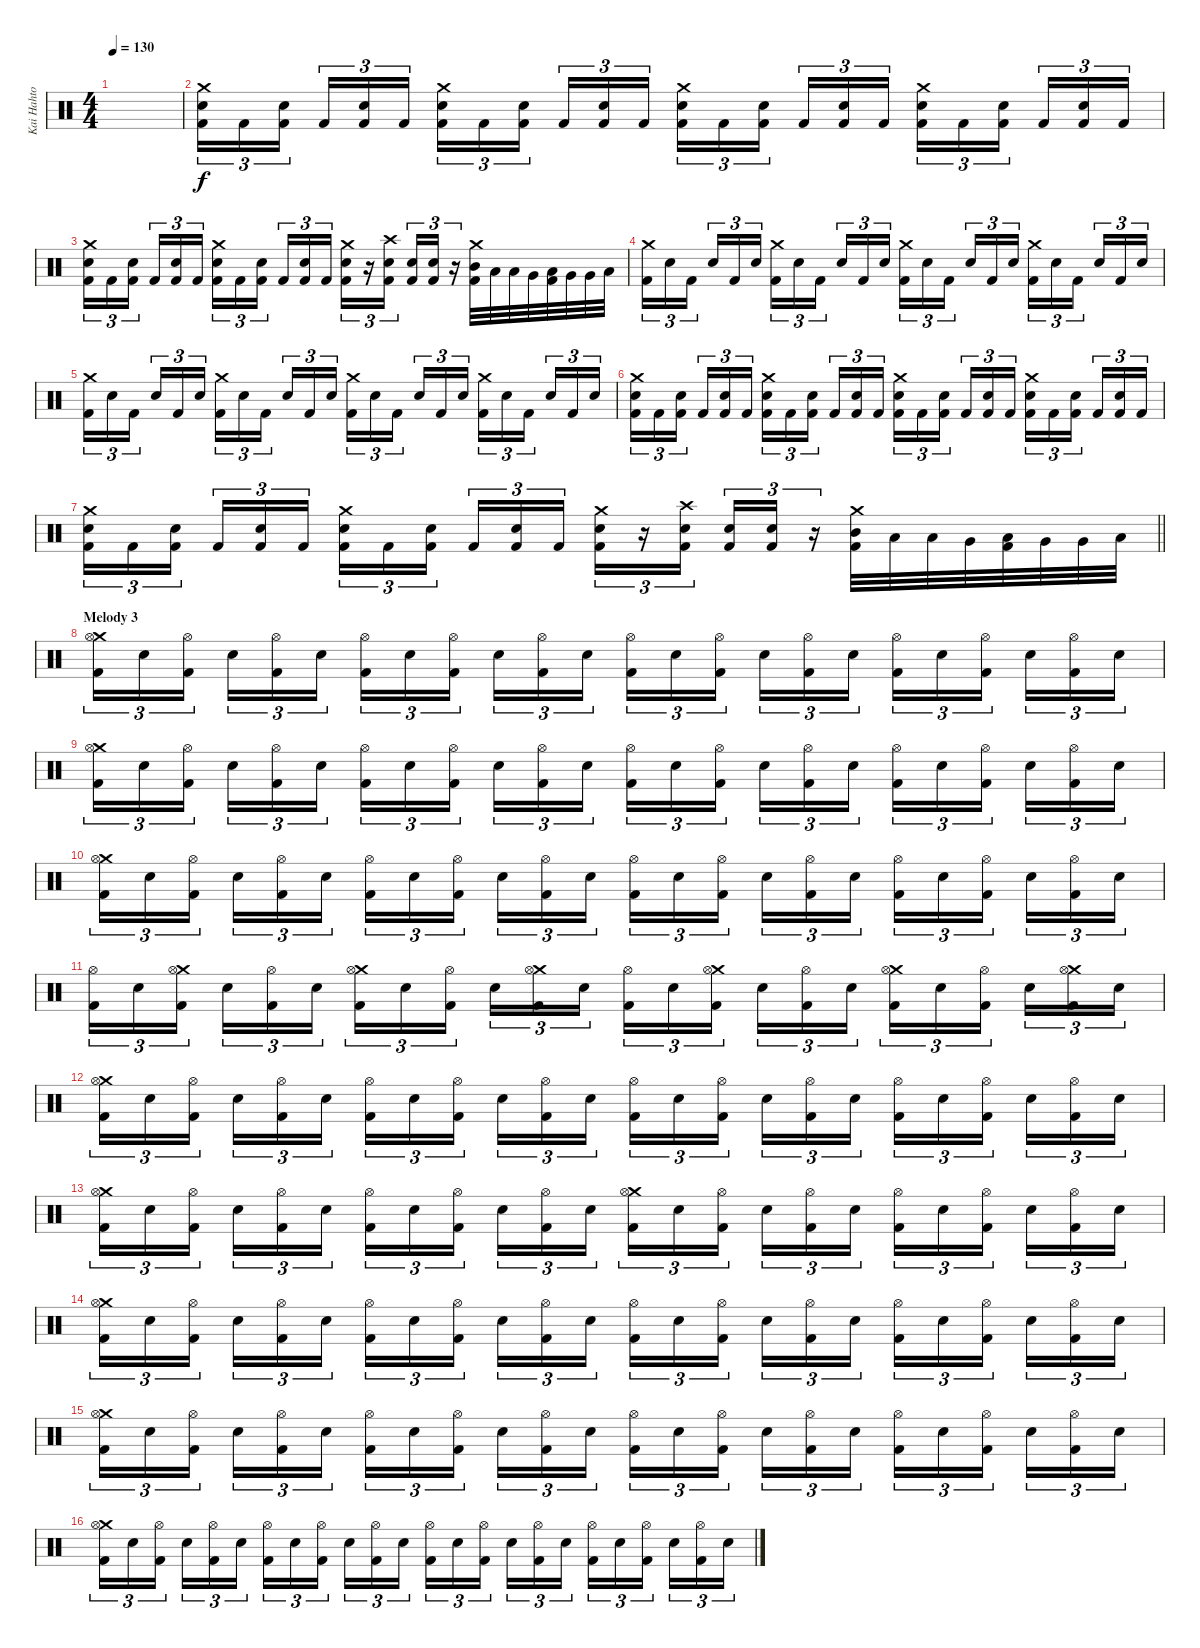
\track ("Kai Hahto" "Kai Hahto") {instrument percussion}
\staff {score}
\articulation defaults
\ts (4 4)
\tempo 130
\clef neutral
\ks c
|
("Crash medium (hit)" "Snare (hit) 2" "Kick (hit) 2").16{tu (3 2)} "Kick (hit) 2".16{tu (3 2)} ("Snare (hit) 2" "Kick (hit) 2").16{tu (3 2) beam splitsecondary} "Kick (hit) 2".16{tu (3 2)} ("Snare (hit) 2" "Kick (hit) 2").16{tu (3 2)} "Kick (hit) 2".16{tu (3 2)} ("Crash medium (hit)" "Snare (hit) 2" "Kick (hit) 2").16{tu (3 2)} "Kick (hit) 2".16{tu (3 2)} ("Snare (hit) 2" "Kick (hit) 2").16{tu (3 2) beam splitsecondary} "Kick (hit) 2".16{tu (3 2)} ("Snare (hit) 2" "Kick (hit) 2").16{tu (3 2)} "Kick (hit) 2".16{tu (3 2)} ("Crash medium (hit)" "Snare (hit) 2" "Kick (hit) 2").16{tu (3 2)} "Kick (hit) 2".16{tu (3 2)} ("Snare (hit) 2" "Kick (hit) 2").16{tu (3 2) beam splitsecondary} "Kick (hit) 2".16{tu (3 2)} ("Snare (hit) 2" "Kick (hit) 2").16{tu (3 2)} "Kick (hit) 2".16{tu (3 2)} ("Crash medium (hit)" "Snare (hit) 2" "Kick (hit) 2").16{tu (3 2)} "Kick (hit) 2".16{tu (3 2)} ("Snare (hit) 2" "Kick (hit) 2").16{tu (3 2) beam splitsecondary} "Kick (hit) 2".16{tu (3 2)} ("Snare (hit) 2" "Kick (hit) 2").16{tu (3 2)} "Kick (hit) 2".16{tu (3 2)} |
("Crash medium (hit)" "Snare (hit) 2" "Kick (hit) 2").16{tu (3 2)} "Kick (hit) 2".16{tu (3 2)} ("Snare (hit) 2" "Kick (hit) 2").16{tu (3 2) beam splitsecondary} "Kick (hit) 2".16{tu (3 2)} ("Snare (hit) 2" "Kick (hit) 2").16{tu (3 2)} "Kick (hit) 2".16{tu (3 2)} ("Crash medium (hit)" "Snare (hit) 2" "Kick (hit) 2").16{tu (3 2)} "Kick (hit) 2".16{tu (3 2)} ("Snare (hit) 2" "Kick (hit) 2").16{tu (3 2) beam splitsecondary} "Kick (hit) 2".16{tu (3 2)} ("Snare (hit) 2" "Kick (hit) 2").16{tu (3 2)} "Kick (hit) 2".16{tu (3 2)} ("Crash medium (hit)" "Snare (hit) 2" "Kick (hit) 2").16{tu (3 2)} r.16{tu (3 2)} ("Crash high (hit)" "Snare (hit) 2" "Kick (hit) 2").16{tu (3 2) beam splitsecondary} ("Snare (hit) 2" "Kick (hit) 2").16{tu (3 2)} ("Snare (hit) 2" "Kick (hit) 2").16{tu (3 2)} r.16{tu (3 2)} ("Crash medium (hit)" "Mid Tom (hit)" "Kick (hit) 2").32 "Low Tom (hit)".32 "Low Tom (hit)".32 "Very Low Tom (hit)".32 ("Low Tom (hit)" "Kick (hit) 2").32 "Very Low Tom (hit)".32 "Very Low Tom (hit)".32 "Low Floor Tom (hit)".32 |
("Crash medium (hit)" "Kick (hit) 2").16{tu (3 2)} "Snare (hit) 2".16{tu (3 2)} "Kick (hit) 2".16{tu (3 2) beam splitsecondary} "Snare (hit) 2".16{tu (3 2)} "Kick (hit) 2".16{tu (3 2)} "Snare (hit) 2".16{tu (3 2)} ("Crash medium (hit)" "Kick (hit) 2").16{tu (3 2)} "Snare (hit) 2".16{tu (3 2)} "Kick (hit) 2".16{tu (3 2) beam splitsecondary} "Snare (hit) 2".16{tu (3 2)} "Kick (hit) 2".16{tu (3 2)} "Snare (hit) 2".16{tu (3 2)} ("Crash medium (hit)" "Kick (hit) 2").16{tu (3 2)} "Snare (hit) 2".16{tu (3 2)} "Kick (hit) 2".16{tu (3 2) beam splitsecondary} "Snare (hit) 2".16{tu (3 2)} "Kick (hit) 2".16{tu (3 2)} "Snare (hit) 2".16{tu (3 2)} ("Crash medium (hit)" "Kick (hit) 2").16{tu (3 2)} "Snare (hit) 2".16{tu (3 2)} "Kick (hit) 2".16{tu (3 2) beam splitsecondary} "Snare (hit) 2".16{tu (3 2)} "Kick (hit) 2".16{tu (3 2)} "Snare (hit) 2".16{tu (3 2)} |
("Crash medium (hit)" "Kick (hit) 2").16{tu (3 2)} "Snare (hit) 2".16{tu (3 2)} "Kick (hit) 2".16{tu (3 2) beam splitsecondary} "Snare (hit) 2".16{tu (3 2)} "Kick (hit) 2".16{tu (3 2)} "Snare (hit) 2".16{tu (3 2)} ("Crash medium (hit)" "Kick (hit) 2").16{tu (3 2)} "Snare (hit) 2".16{tu (3 2)} "Kick (hit) 2".16{tu (3 2) beam splitsecondary} "Snare (hit) 2".16{tu (3 2)} "Kick (hit) 2".16{tu (3 2)} "Snare (hit) 2".16{tu (3 2)} ("Crash medium (hit)" "Kick (hit) 2").16{tu (3 2)} "Snare (hit) 2".16{tu (3 2)} "Kick (hit) 2".16{tu (3 2) beam splitsecondary} "Snare (hit) 2".16{tu (3 2)} "Kick (hit) 2".16{tu (3 2)} "Snare (hit) 2".16{tu (3 2)} ("Crash medium (hit)" "Kick (hit) 2").16{tu (3 2)} "Snare (hit) 2".16{tu (3 2)} "Kick (hit) 2".16{tu (3 2) beam splitsecondary} "Snare (hit) 2".16{tu (3 2)} "Kick (hit) 2".16{tu (3 2)} "Snare (hit) 2".16{tu (3 2)} |
("Crash medium (hit)" "Snare (hit) 2" "Kick (hit) 2").16{tu (3 2)} "Kick (hit) 2".16{tu (3 2)} ("Snare (hit) 2" "Kick (hit) 2").16{tu (3 2) beam splitsecondary} "Kick (hit) 2".16{tu (3 2)} ("Snare (hit) 2" "Kick (hit) 2").16{tu (3 2)} "Kick (hit) 2".16{tu (3 2)} ("Crash medium (hit)" "Snare (hit) 2" "Kick (hit) 2").16{tu (3 2)} "Kick (hit) 2".16{tu (3 2)} ("Snare (hit) 2" "Kick (hit) 2").16{tu (3 2) beam splitsecondary} "Kick (hit) 2".16{tu (3 2)} ("Snare (hit) 2" "Kick (hit) 2").16{tu (3 2)} "Kick (hit) 2".16{tu (3 2)} ("Crash medium (hit)" "Snare (hit) 2" "Kick (hit) 2").16{tu (3 2)} "Kick (hit) 2".16{tu (3 2)} ("Snare (hit) 2" "Kick (hit) 2").16{tu (3 2) beam splitsecondary} "Kick (hit) 2".16{tu (3 2)} ("Snare (hit) 2" "Kick (hit) 2").16{tu (3 2)} "Kick (hit) 2".16{tu (3 2)} ("Crash medium (hit)" "Snare (hit) 2" "Kick (hit) 2").16{tu (3 2)} "Kick (hit) 2".16{tu (3 2)} ("Snare (hit) 2" "Kick (hit) 2").16{tu (3 2) beam splitsecondary} "Kick (hit) 2".16{tu (3 2)} ("Snare (hit) 2" "Kick (hit) 2").16{tu (3 2)} "Kick (hit) 2".16{tu (3 2)} |
\barLineRight lightlight
("Crash medium (hit)" "Snare (hit) 2" "Kick (hit) 2").16{tu (3 2)} "Kick (hit) 2".16{tu (3 2)} ("Snare (hit) 2" "Kick (hit) 2").16{tu (3 2) beam splitsecondary} "Kick (hit) 2".16{tu (3 2)} ("Snare (hit) 2" "Kick (hit) 2").16{tu (3 2)} "Kick (hit) 2".16{tu (3 2)} ("Crash medium (hit)" "Snare (hit) 2" "Kick (hit) 2").16{tu (3 2)} "Kick (hit) 2".16{tu (3 2)} ("Snare (hit) 2" "Kick (hit) 2").16{tu (3 2) beam splitsecondary} "Kick (hit) 2".16{tu (3 2)} ("Snare (hit) 2" "Kick (hit) 2").16{tu (3 2)} "Kick (hit) 2".16{tu (3 2)} ("Crash medium (hit)" "Snare (hit) 2" "Kick (hit) 2").16{tu (3 2)} r.16{tu (3 2)} ("Crash high (hit)" "Snare (hit) 2" "Kick (hit) 2").16{tu (3 2) beam splitsecondary} ("Snare (hit) 2" "Kick (hit) 2").16{tu (3 2)} ("Snare (hit) 2" "Kick (hit) 2").16{tu (3 2)} r.16{tu (3 2)} ("Crash medium (hit)" "Mid Tom (hit)" "Kick (hit) 2").32 "Low Tom (hit)".32 "Low Tom (hit)".32 "Very Low Tom (hit)".32 ("Low Tom (hit)" "Kick (hit) 2").32 "Very Low Tom (hit)".32 "Very Low Tom (hit)".32 "Low Floor Tom (hit)".32 |
\section ("" "Melody 3")
("Crash medium (hit)" "Hi-Hat (open)" "Kick (hit) 2").16{tu (3 2)} "Snare (hit) 2".16{tu (3 2)} ("Hi-Hat (open)" "Kick (hit) 2").16{tu (3 2) beam splitsecondary} "Snare (hit) 2".16{tu (3 2)} ("Hi-Hat (open)" "Kick (hit) 2").16{tu (3 2)} "Snare (hit) 2".16{tu (3 2)} ("Hi-Hat (open)" "Kick (hit) 2").16{tu (3 2)} "Snare (hit) 2".16{tu (3 2)} ("Hi-Hat (open)" "Kick (hit) 2").16{tu (3 2) beam splitsecondary} "Snare (hit) 2".16{tu (3 2)} ("Hi-Hat (open)" "Kick (hit) 2").16{tu (3 2)} "Snare (hit) 2".16{tu (3 2)} ("Hi-Hat (open)" "Kick (hit) 2").16{tu (3 2)} "Snare (hit) 2".16{tu (3 2)} ("Hi-Hat (open)" "Kick (hit) 2").16{tu (3 2) beam splitsecondary} "Snare (hit) 2".16{tu (3 2)} ("Hi-Hat (open)" "Kick (hit) 2").16{tu (3 2)} "Snare (hit) 2".16{tu (3 2)} ("Hi-Hat (open)" "Kick (hit) 2").16{tu (3 2)} "Snare (hit) 2".16{tu (3 2)} ("Hi-Hat (open)" "Kick (hit) 2").16{tu (3 2) beam splitsecondary} "Snare (hit) 2".16{tu (3 2)} ("Hi-Hat (open)" "Kick (hit) 2").16{tu (3 2)} "Snare (hit) 2".16{tu (3 2)} |
("Crash medium (hit)" "Hi-Hat (open)" "Kick (hit) 2").16{tu (3 2)} "Snare (hit) 2".16{tu (3 2)} ("Hi-Hat (open)" "Kick (hit) 2").16{tu (3 2) beam splitsecondary} "Snare (hit) 2".16{tu (3 2)} ("Hi-Hat (open)" "Kick (hit) 2").16{tu (3 2)} "Snare (hit) 2".16{tu (3 2)} ("Hi-Hat (open)" "Kick (hit) 2").16{tu (3 2)} "Snare (hit) 2".16{tu (3 2)} ("Hi-Hat (open)" "Kick (hit) 2").16{tu (3 2) beam splitsecondary} "Snare (hit) 2".16{tu (3 2)} ("Hi-Hat (open)" "Kick (hit) 2").16{tu (3 2)} "Snare (hit) 2".16{tu (3 2)} ("Hi-Hat (open)" "Kick (hit) 2").16{tu (3 2)} "Snare (hit) 2".16{tu (3 2)} ("Hi-Hat (open)" "Kick (hit) 2").16{tu (3 2) beam splitsecondary} "Snare (hit) 2".16{tu (3 2)} ("Hi-Hat (open)" "Kick (hit) 2").16{tu (3 2)} "Snare (hit) 2".16{tu (3 2)} ("Hi-Hat (open)" "Kick (hit) 2").16{tu (3 2)} "Snare (hit) 2".16{tu (3 2)} ("Hi-Hat (open)" "Kick (hit) 2").16{tu (3 2) beam splitsecondary} "Snare (hit) 2".16{tu (3 2)} ("Hi-Hat (open)" "Kick (hit) 2").16{tu (3 2)} "Snare (hit) 2".16{tu (3 2)} |
("Crash medium (hit)" "Hi-Hat (open)" "Kick (hit) 2").16{tu (3 2)} "Snare (hit) 2".16{tu (3 2)} ("Hi-Hat (open)" "Kick (hit) 2").16{tu (3 2) beam splitsecondary} "Snare (hit) 2".16{tu (3 2)} ("Hi-Hat (open)" "Kick (hit) 2").16{tu (3 2)} "Snare (hit) 2".16{tu (3 2)} ("Hi-Hat (open)" "Kick (hit) 2").16{tu (3 2)} "Snare (hit) 2".16{tu (3 2)} ("Hi-Hat (open)" "Kick (hit) 2").16{tu (3 2) beam splitsecondary} "Snare (hit) 2".16{tu (3 2)} ("Hi-Hat (open)" "Kick (hit) 2").16{tu (3 2)} "Snare (hit) 2".16{tu (3 2)} ("Hi-Hat (open)" "Kick (hit) 2").16{tu (3 2)} "Snare (hit) 2".16{tu (3 2)} ("Hi-Hat (open)" "Kick (hit) 2").16{tu (3 2) beam splitsecondary} "Snare (hit) 2".16{tu (3 2)} ("Hi-Hat (open)" "Kick (hit) 2").16{tu (3 2)} "Snare (hit) 2".16{tu (3 2)} ("Hi-Hat (open)" "Kick (hit) 2").16{tu (3 2)} "Snare (hit) 2".16{tu (3 2)} ("Hi-Hat (open)" "Kick (hit) 2").16{tu (3 2) beam splitsecondary} "Snare (hit) 2".16{tu (3 2)} ("Hi-Hat (open)" "Kick (hit) 2").16{tu (3 2)} "Snare (hit) 2".16{tu (3 2)} |
("Hi-Hat (open)" "Kick (hit) 2").16{tu (3 2)} "Snare (hit) 2".16{tu (3 2)} ("Crash medium (hit)" "Hi-Hat (open)" "Kick (hit) 2").16{tu (3 2) beam splitsecondary} "Snare (hit) 2".16{tu (3 2)} ("Hi-Hat (open)" "Kick (hit) 2").16{tu (3 2)} "Snare (hit) 2".16{tu (3 2)} ("Crash medium (hit)" "Hi-Hat (open)" "Kick (hit) 2").16{tu (3 2)} "Snare (hit) 2".16{tu (3 2)} ("Hi-Hat (open)" "Kick (hit) 2").16{tu (3 2) beam splitsecondary} "Snare (hit) 2".16{tu (3 2)} ("Crash medium (hit)" "Hi-Hat (open)" "Kick (hit) 2").16{tu (3 2)} "Snare (hit) 2".16{tu (3 2)} ("Hi-Hat (open)" "Kick (hit) 2").16{tu (3 2)} "Snare (hit) 2".16{tu (3 2)} ("Crash medium (hit)" "Hi-Hat (open)" "Kick (hit) 2").16{tu (3 2) beam splitsecondary} "Snare (hit) 2".16{tu (3 2)} ("Hi-Hat (open)" "Kick (hit) 2").16{tu (3 2)} "Snare (hit) 2".16{tu (3 2)} ("Crash medium (hit)" "Hi-Hat (open)" "Kick (hit) 2").16{tu (3 2)} "Snare (hit) 2".16{tu (3 2)} ("Hi-Hat (open)" "Kick (hit) 2").16{tu (3 2) beam splitsecondary} "Snare (hit) 2".16{tu (3 2)} ("Crash medium (hit)" "Hi-Hat (open)" "Kick (hit) 2").16{tu (3 2)} "Snare (hit) 2".16{tu (3 2)} |
("Crash medium (hit)" "Hi-Hat (open)" "Kick (hit) 2").16{tu (3 2)} "Snare (hit) 2".16{tu (3 2)} ("Hi-Hat (open)" "Kick (hit) 2").16{tu (3 2) beam splitsecondary} "Snare (hit) 2".16{tu (3 2)} ("Hi-Hat (open)" "Kick (hit) 2").16{tu (3 2)} "Snare (hit) 2".16{tu (3 2)} ("Hi-Hat (open)" "Kick (hit) 2").16{tu (3 2)} "Snare (hit) 2".16{tu (3 2)} ("Hi-Hat (open)" "Kick (hit) 2").16{tu (3 2) beam splitsecondary} "Snare (hit) 2".16{tu (3 2)} ("Hi-Hat (open)" "Kick (hit) 2").16{tu (3 2)} "Snare (hit) 2".16{tu (3 2)} ("Hi-Hat (open)" "Kick (hit) 2").16{tu (3 2)} "Snare (hit) 2".16{tu (3 2)} ("Hi-Hat (open)" "Kick (hit) 2").16{tu (3 2) beam splitsecondary} "Snare (hit) 2".16{tu (3 2)} ("Hi-Hat (open)" "Kick (hit) 2").16{tu (3 2)} "Snare (hit) 2".16{tu (3 2)} ("Hi-Hat (open)" "Kick (hit) 2").16{tu (3 2)} "Snare (hit) 2".16{tu (3 2)} ("Hi-Hat (open)" "Kick (hit) 2").16{tu (3 2) beam splitsecondary} "Snare (hit) 2".16{tu (3 2)} ("Hi-Hat (open)" "Kick (hit) 2").16{tu (3 2)} "Snare (hit) 2".16{tu (3 2)} |
("Crash medium (hit)" "Hi-Hat (open)" "Kick (hit) 2").16{tu (3 2)} "Snare (hit) 2".16{tu (3 2)} ("Hi-Hat (open)" "Kick (hit) 2").16{tu (3 2) beam splitsecondary} "Snare (hit) 2".16{tu (3 2)} ("Hi-Hat (open)" "Kick (hit) 2").16{tu (3 2)} "Snare (hit) 2".16{tu (3 2)} ("Hi-Hat (open)" "Kick (hit) 2").16{tu (3 2)} "Snare (hit) 2".16{tu (3 2)} ("Hi-Hat (open)" "Kick (hit) 2").16{tu (3 2) beam splitsecondary} "Snare (hit) 2".16{tu (3 2)} ("Hi-Hat (open)" "Kick (hit) 2").16{tu (3 2)} "Snare (hit) 2".16{tu (3 2)} ("Crash medium (hit)" "Hi-Hat (open)" "Kick (hit) 2").16{tu (3 2)} "Snare (hit) 2".16{tu (3 2)} ("Hi-Hat (open)" "Kick (hit) 2").16{tu (3 2) beam splitsecondary} "Snare (hit) 2".16{tu (3 2)} ("Hi-Hat (open)" "Kick (hit) 2").16{tu (3 2)} "Snare (hit) 2".16{tu (3 2)} ("Hi-Hat (open)" "Kick (hit) 2").16{tu (3 2)} "Snare (hit) 2".16{tu (3 2)} ("Hi-Hat (open)" "Kick (hit) 2").16{tu (3 2) beam splitsecondary} "Snare (hit) 2".16{tu (3 2)} ("Hi-Hat (open)" "Kick (hit) 2").16{tu (3 2)} "Snare (hit) 2".16{tu (3 2)} |
("Crash medium (hit)" "Hi-Hat (open)" "Kick (hit) 2").16{tu (3 2)} "Snare (hit) 2".16{tu (3 2)} ("Hi-Hat (open)" "Kick (hit) 2").16{tu (3 2) beam splitsecondary} "Snare (hit) 2".16{tu (3 2)} ("Hi-Hat (open)" "Kick (hit) 2").16{tu (3 2)} "Snare (hit) 2".16{tu (3 2)} ("Hi-Hat (open)" "Kick (hit) 2").16{tu (3 2)} "Snare (hit) 2".16{tu (3 2)} ("Hi-Hat (open)" "Kick (hit) 2").16{tu (3 2) beam splitsecondary} "Snare (hit) 2".16{tu (3 2)} ("Hi-Hat (open)" "Kick (hit) 2").16{tu (3 2)} "Snare (hit) 2".16{tu (3 2)} ("Hi-Hat (open)" "Kick (hit) 2").16{tu (3 2)} "Snare (hit) 2".16{tu (3 2)} ("Hi-Hat (open)" "Kick (hit) 2").16{tu (3 2) beam splitsecondary} "Snare (hit) 2".16{tu (3 2)} ("Hi-Hat (open)" "Kick (hit) 2").16{tu (3 2)} "Snare (hit) 2".16{tu (3 2)} ("Hi-Hat (open)" "Kick (hit) 2").16{tu (3 2)} "Snare (hit) 2".16{tu (3 2)} ("Hi-Hat (open)" "Kick (hit) 2").16{tu (3 2) beam splitsecondary} "Snare (hit) 2".16{tu (3 2)} ("Hi-Hat (open)" "Kick (hit) 2").16{tu (3 2)} "Snare (hit) 2".16{tu (3 2)} |
("Crash medium (hit)" "Hi-Hat (open)" "Kick (hit) 2").16{tu (3 2)} "Snare (hit) 2".16{tu (3 2)} ("Hi-Hat (open)" "Kick (hit) 2").16{tu (3 2) beam splitsecondary} "Snare (hit) 2".16{tu (3 2)} ("Hi-Hat (open)" "Kick (hit) 2").16{tu (3 2)} "Snare (hit) 2".16{tu (3 2)} ("Hi-Hat (open)" "Kick (hit) 2").16{tu (3 2)} "Snare (hit) 2".16{tu (3 2)} ("Hi-Hat (open)" "Kick (hit) 2").16{tu (3 2) beam splitsecondary} "Snare (hit) 2".16{tu (3 2)} ("Hi-Hat (open)" "Kick (hit) 2").16{tu (3 2)} "Snare (hit) 2".16{tu (3 2)} ("Hi-Hat (open)" "Kick (hit) 2").16{tu (3 2)} "Snare (hit) 2".16{tu (3 2)} ("Hi-Hat (open)" "Kick (hit) 2").16{tu (3 2) beam splitsecondary} "Snare (hit) 2".16{tu (3 2)} ("Hi-Hat (open)" "Kick (hit) 2").16{tu (3 2)} "Snare (hit) 2".16{tu (3 2)} ("Hi-Hat (open)" "Kick (hit) 2").16{tu (3 2)} "Snare (hit) 2".16{tu (3 2)} ("Hi-Hat (open)" "Kick (hit) 2").16{tu (3 2) beam splitsecondary} "Snare (hit) 2".16{tu (3 2)} ("Hi-Hat (open)" "Kick (hit) 2").16{tu (3 2)} "Snare (hit) 2".16{tu (3 2)} |
("Crash medium (hit)" "Hi-Hat (open)" "Kick (hit) 2").16{tu (3 2)} "Snare (hit) 2".16{tu (3 2)} ("Hi-Hat (open)" "Kick (hit) 2").16{tu (3 2) beam splitsecondary} "Snare (hit) 2".16{tu (3 2)} ("Hi-Hat (open)" "Kick (hit) 2").16{tu (3 2)} "Snare (hit) 2".16{tu (3 2)} ("Hi-Hat (open)" "Kick (hit) 2").16{tu (3 2)} "Snare (hit) 2".16{tu (3 2)} ("Hi-Hat (open)" "Kick (hit) 2").16{tu (3 2) beam splitsecondary} "Snare (hit) 2".16{tu (3 2)} ("Hi-Hat (open)" "Kick (hit) 2").16{tu (3 2)} "Snare (hit) 2".16{tu (3 2)} ("Hi-Hat (open)" "Kick (hit) 2").16{tu (3 2)} "Snare (hit) 2".16{tu (3 2)} ("Hi-Hat (open)" "Kick (hit) 2").16{tu (3 2) beam splitsecondary} "Snare (hit) 2".16{tu (3 2)} ("Hi-Hat (open)" "Kick (hit) 2").16{tu (3 2)} "Snare (hit) 2".16{tu (3 2)} ("Hi-Hat (open)" "Kick (hit) 2").16{tu (3 2)} "Snare (hit) 2".16{tu (3 2)} ("Hi-Hat (open)" "Kick (hit) 2").16{tu (3 2) beam splitsecondary} "Snare (hit) 2".16{tu (3 2)} ("Hi-Hat (open)" "Kick (hit) 2").16{tu (3 2)} "Snare (hit) 2".16{tu (3 2)}
